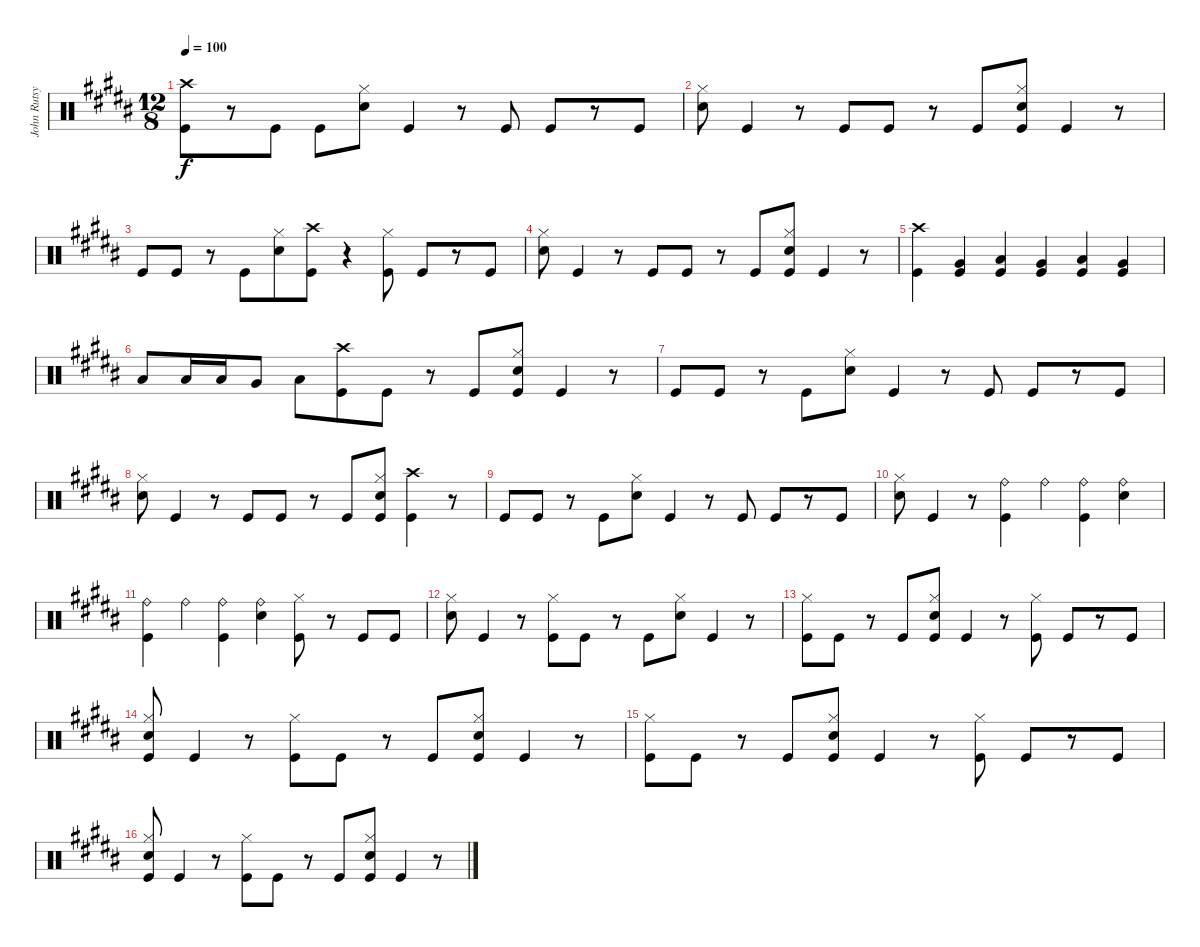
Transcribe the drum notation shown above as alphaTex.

\track ("John Rutsy Drums" "John Rutsy") {instrument percussion}
\staff {score}
\articulation defaults
\ts (12 8)
\tempo 100
\clef neutral
\ks b
("Crash high (hit)" "Kick (hit)").8{dy f} r.8 "Kick (hit)".8 "Kick (hit)".8 ("Hi-Hat (closed)" "Snare (hit) 2").8 "Kick (hit)".4 r.8 "Kick (hit)".8 "Kick (hit)".8 r.8 "Kick (hit)".8 |
("Hi-Hat (closed)" "Snare (hit) 2").8 "Kick (hit)".4 r.8 "Kick (hit)".8 "Kick (hit)".8 r.8 "Kick (hit)".8 ("Hi-Hat (closed)" "Snare (hit) 2" "Kick (hit)").8 "Kick (hit)".4 r.8 |
"Kick (hit)".8 "Kick (hit)".8 r.8 "Kick (hit)".8 ("Hi-Hat (closed)" "Snare (hit) 2").8 ("Crash high (hit)" "Kick (hit)").8 r.4 ("Hi-Hat (closed)" "Kick (hit)").8 "Kick (hit)".8 r.8 "Kick (hit)".8 |
("Hi-Hat (closed)" "Snare (hit) 2").8 "Kick (hit)".4 r.8 "Kick (hit)".8 "Kick (hit)".8 r.8 "Kick (hit)".8 ("Hi-Hat (closed)" "Snare (hit) 2" "Kick (hit)").8 "Kick (hit)".4 r.8 |
("Crash high (hit)" "Kick (hit)").4 ("Very Low Tom (hit)" "Kick (hit)").4 ("Low Floor Tom (hit)" "Kick (hit)").4 ("Very Low Tom (hit)" "Kick (hit)").4 ("Low Floor Tom (hit)" "Kick (hit)").4 ("Very Low Tom (hit)" "Kick (hit)").4 |
"Low Tom (hit)".8 "Low Tom (hit)".16 "Low Tom (hit)".16 "Very Low Tom (hit)".8 "Low Floor Tom (hit)".8 ("Crash high (hit)" "Kick (hit)").8 "Kick (hit)".8 r.8 "Kick (hit)".8 ("Hi-Hat (closed)" "Snare (hit) 2" "Kick (hit)").8 "Kick (hit)".4 r.8 |
"Kick (hit)".8 "Kick (hit)".8 r.8 "Kick (hit)".8 ("Hi-Hat (closed)" "Snare (hit) 2").8 "Kick (hit)".4 r.8 "Kick (hit)".8 "Kick (hit)".8 r.8 "Kick (hit)".8 |
("Hi-Hat (closed)" "Snare (hit) 2").8 "Kick (hit)".4 r.8 "Kick (hit)".8 "Kick (hit)".8 r.8 "Kick (hit)".8 ("Hi-Hat (closed)" "Snare (hit) 2" "Kick (hit)").8 ("Crash high (hit)" "Kick (hit)").4 r.8 |
"Kick (hit)".8 "Kick (hit)".8 r.8 "Kick (hit)".8 ("Hi-Hat (closed)" "Snare (hit) 2").8 "Kick (hit)".4 r.8 "Kick (hit)".8 "Kick (hit)".8 r.8 "Kick (hit)".8 |
("Hi-Hat (closed)" "Snare (hit) 2").8 "Kick (hit)".4 r.8 ("Ride (bell)" "Kick (hit)").4 "Ride (bell)".4 ("Ride (bell)" "Kick (hit)").4 ("Ride (bell)" "Snare (hit) 2").4 |
("Ride (bell)" "Kick (hit)").4 "Ride (bell)".4 ("Ride (bell)" "Kick (hit)").4 ("Ride (bell)" "Snare (hit) 2").4 ("Hi-Hat (closed)" "Kick (hit)").8 r.8 "Kick (hit)".8 "Kick (hit)".8 |
("Hi-Hat (closed)" "Snare (hit) 2").8 "Kick (hit)".4 r.8 ("Hi-Hat (closed)" "Kick (hit)").8 "Kick (hit)".8 r.8 "Kick (hit)".8 ("Hi-Hat (closed)" "Snare (hit) 2").8 "Kick (hit)".4 r.8 |
("Hi-Hat (closed)" "Kick (hit)").8 "Kick (hit)".8 r.8 "Kick (hit)".8 ("Hi-Hat (closed)" "Snare (hit) 2" "Kick (hit)").8 "Kick (hit)".4 r.8 ("Hi-Hat (closed)" "Kick (hit)").8 "Kick (hit)".8 r.8 "Kick (hit)".8 |
("Hi-Hat (closed)" "Snare (hit) 2" "Kick (hit)").8 "Kick (hit)".4 r.8 ("Hi-Hat (closed)" "Kick (hit)").8 "Kick (hit)".8 r.8 "Kick (hit)".8 ("Hi-Hat (closed)" "Snare (hit) 2" "Kick (hit)").8 "Kick (hit)".4 r.8 |
("Hi-Hat (closed)" "Kick (hit)").8 "Kick (hit)".8 r.8 "Kick (hit)".8 ("Hi-Hat (closed)" "Snare (hit) 2" "Kick (hit)").8 "Kick (hit)".4 r.8 ("Hi-Hat (closed)" "Kick (hit)").8 "Kick (hit)".8 r.8 "Kick (hit)".8 |
("Hi-Hat (closed)" "Snare (hit) 2" "Kick (hit)").8 "Kick (hit)".4 r.8 ("Hi-Hat (closed)" "Kick (hit)").8 "Kick (hit)".8 r.8 "Kick (hit)".8 ("Hi-Hat (closed)" "Snare (hit) 2" "Kick (hit)").8 "Kick (hit)".4 r.8
